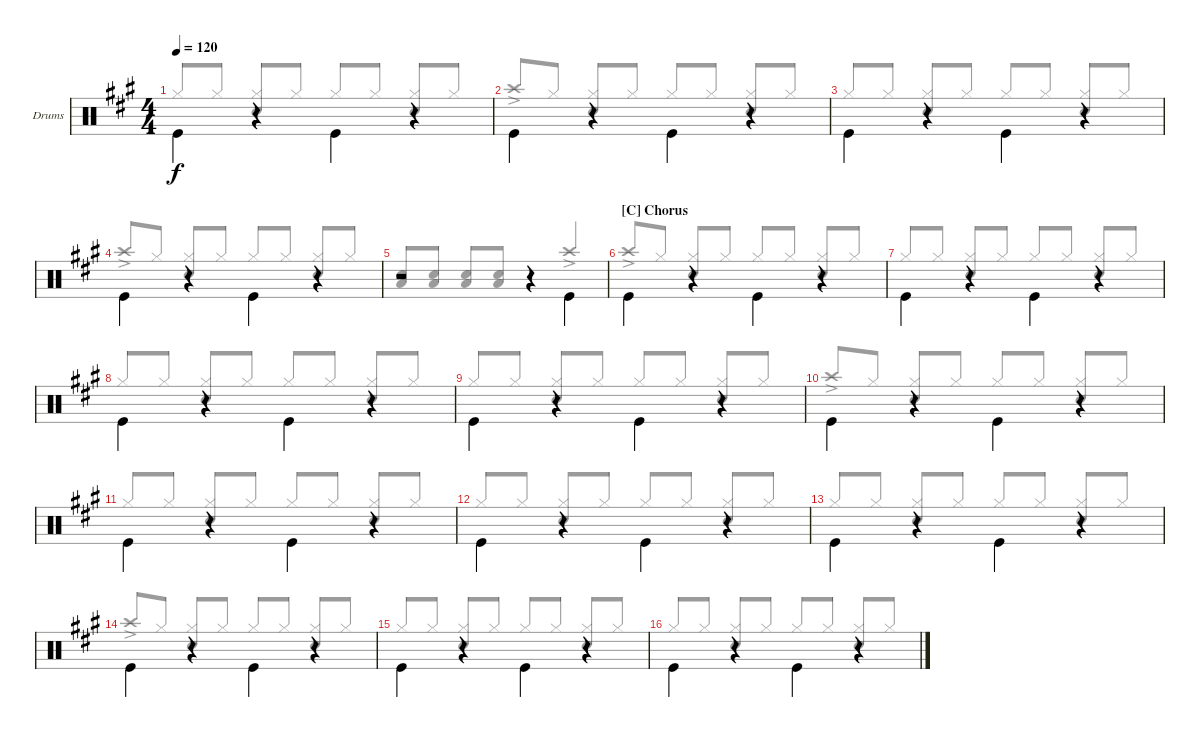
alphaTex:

\bracketExtendMode groupsimilarinstruments
\firstSystemTrackNameOrientation horizontal
\otherSystemsTrackNameOrientation horizontal
\track ("Drum" "Drums") {instrument percussion}
\staff {score}
\articulation defaults
\voice
\ts (4 4)
\tempo 120
\clef neutral
\scale
1.05801
\ks a "Kick (hit)".4{dy f beam invert}
r.4 "Kick (hit)".4{beam invert} r.4 |
\scale
0.941992 "Kick (hit)".4{beam invert} r.4 "Kick (hit)".4{beam invert} r.4 |
\scale
1.05801 "Kick (hit)".4{beam invert} r.4 "Kick (hit)".4{beam invert} r.4 |
\scale
0.941992 "Kick (hit)".4{beam invert} r.4 "Kick (hit)".4{beam invert} r.4 |
\scale
1.05801 r.2 r.4 "Kick (hit)".4{beam invert} |
\section ("C" "Chorus")
\scale
0.941992 "Kick (hit)".4{beam invert} r.4 "Kick (hit)".4{beam invert} r.4 |
\scale
1.05801 "Kick (hit)".4{beam invert} r.4 "Kick (hit)".4{beam invert} r.4 |
\scale
0.941992 "Kick (hit)".4{beam invert} r.4 "Kick (hit)".4{beam invert} r.4 |
\scale
1.05801 "Kick (hit)".4{beam invert} r.4 "Kick (hit)".4{beam invert} r.4 |
\scale
0.941992 "Kick (hit)".4{beam invert} r.4 "Kick (hit)".4{beam invert} r.4 |
\scale
1.05801 "Kick (hit)".4{beam invert} r.4 "Kick (hit)".4{beam invert} r.4 |
\scale
0.941992 "Kick (hit)".4{beam invert} r.4 "Kick (hit)".4{beam invert} r.4 |
\scale
1.05801 "Kick (hit)".4{beam invert} r.4 "Kick (hit)".4{beam invert} r.4 |
\scale
0.941992 "Kick (hit)".4{beam invert} r.4 "Kick (hit)".4{beam invert} r.4 |
\scale
1.05801 "Kick (hit)".4{beam invert} r.4 "Kick (hit)".4{beam invert} r.4 |
\scale
0.941992 "Kick (hit)".4{beam invert} r.4 "Kick (hit)".4{beam invert} r.4
\voice
\clef neutral
\ottava regular
\simile none
\scale
1.05801
\ks a "Hi-Hat (closed)".8{dy f beam invert} "Hi-Hat (closed)".8
("Hi-Hat (closed)" "Snare (hit) 2").8{beam invert} "Hi-Hat (closed)".8 "Hi-Hat (closed)".8{beam invert} "Hi-Hat (closed)".8 ("Hi-Hat (closed)" "Snare (hit) 2").8{beam invert} "Hi-Hat (closed)".8 |
\scale
0.941992 "Crash high (hit)"{ac}.8{beam invert} "Hi-Hat (closed)".8 ("Hi-Hat (closed)" "Snare (hit) 2").8{beam invert} "Hi-Hat (closed)".8 "Hi-Hat (closed)".8{beam invert} "Hi-Hat (closed)".8 ("Hi-Hat (closed)" "Snare (hit) 2").8{beam invert} "Hi-Hat (closed)".8 |
\scale
1.05801 "Hi-Hat (closed)".8{beam invert} "Hi-Hat (closed)".8 ("Hi-Hat (closed)" "Snare (hit) 2").8{beam invert} "Hi-Hat (closed)".8 "Hi-Hat (closed)".8{beam invert} "Hi-Hat (closed)".8 ("Hi-Hat (closed)" "Snare (hit) 2").8{beam invert} "Hi-Hat (closed)".8 |
\scale
0.941992 "Crash high (hit)"{ac}.8{beam invert} "Hi-Hat (closed)".8 ("Hi-Hat (closed)" "Snare (hit) 2").8{beam invert} "Hi-Hat (closed)".8 "Hi-Hat (closed)".8{beam invert} "Hi-Hat (closed)".8 ("Hi-Hat (closed)" "Snare (hit) 2").8{beam invert} "Hi-Hat (closed)".8 |
\scale
1.05801 ("Low Tom (hit)" "Snare (hit) 2").8{beam invert} ("Low Tom (hit)" "Snare (hit) 2").8 ("Low Tom (hit)" "Snare (hit) 2").8{beam invert} ("Low Tom (hit)" "Snare (hit) 2").8 r.4 "Crash high (hit)"{ac}.4{beam invert} |
\scale
0.941992 "Crash high (hit)"{ac}.8{beam invert} "Hi-Hat (closed)".8 ("Hi-Hat (closed)" "Snare (hit) 2").8{beam invert} "Hi-Hat (closed)".8 "Hi-Hat (closed)".8{beam invert} "Hi-Hat (closed)".8 ("Hi-Hat (closed)" "Snare (hit) 2").8{beam invert} "Hi-Hat (closed)".8 |
\scale
1.05801 "Hi-Hat (closed)".8{beam invert} "Hi-Hat (closed)".8 ("Hi-Hat (closed)" "Snare (hit) 2").8{beam invert} "Hi-Hat (closed)".8 "Hi-Hat (closed)".8{beam invert} "Hi-Hat (closed)".8 ("Hi-Hat (closed)" "Snare (hit) 2").8{beam invert} "Hi-Hat (closed)".8 |
\scale
0.941992 "Hi-Hat (closed)".8{beam invert} "Hi-Hat (closed)".8 ("Hi-Hat (closed)" "Snare (hit) 2").8{beam invert} "Hi-Hat (closed)".8 "Hi-Hat (closed)".8{beam invert} "Hi-Hat (closed)".8 ("Hi-Hat (closed)" "Snare (hit) 2").8{beam invert} "Hi-Hat (closed)".8 |
\scale
1.05801 "Hi-Hat (closed)".8{beam invert} "Hi-Hat (closed)".8 ("Hi-Hat (closed)" "Snare (hit) 2").8{beam invert} "Hi-Hat (closed)".8 "Hi-Hat (closed)".8{beam invert} "Hi-Hat (closed)".8 ("Hi-Hat (closed)" "Snare (hit) 2").8{beam invert} "Hi-Hat (closed)".8 |
\scale
0.941992 "Crash high (hit)"{ac}.8{beam invert} "Hi-Hat (closed)".8 ("Hi-Hat (closed)" "Snare (hit) 2").8{beam invert} "Hi-Hat (closed)".8 "Hi-Hat (closed)".8{beam invert} "Hi-Hat (closed)".8 ("Hi-Hat (closed)" "Snare (hit) 2").8{beam invert} "Hi-Hat (closed)".8 |
\scale
1.05801 "Hi-Hat (closed)".8{beam invert} "Hi-Hat (closed)".8 ("Hi-Hat (closed)" "Snare (hit) 2").8{beam invert} "Hi-Hat (closed)".8 "Hi-Hat (closed)".8{beam invert} "Hi-Hat (closed)".8 ("Hi-Hat (closed)" "Snare (hit) 2").8{beam invert} "Hi-Hat (closed)".8 |
\scale
0.941992 "Hi-Hat (closed)".8{beam invert} "Hi-Hat (closed)".8 ("Hi-Hat (closed)" "Snare (hit) 2").8{beam invert} "Hi-Hat (closed)".8 "Hi-Hat (closed)".8{beam invert} "Hi-Hat (closed)".8 ("Hi-Hat (closed)" "Snare (hit) 2").8{beam invert} "Hi-Hat (closed)".8 |
\scale
1.05801 "Hi-Hat (closed)".8{beam invert} "Hi-Hat (closed)".8 ("Hi-Hat (closed)" "Snare (hit) 2").8{beam invert} "Hi-Hat (closed)".8 "Hi-Hat (closed)".8{beam invert} "Hi-Hat (closed)".8 ("Hi-Hat (closed)" "Snare (hit) 2").8{beam invert} "Hi-Hat (closed)".8 |
\scale
0.941992 "Crash high (hit)"{ac}.8{beam invert} "Hi-Hat (closed)".8 ("Hi-Hat (closed)" "Snare (hit) 2").8{beam invert} "Hi-Hat (closed)".8 "Hi-Hat (closed)".8{beam invert} "Hi-Hat (closed)".8 ("Hi-Hat (closed)" "Snare (hit) 2").8{beam invert} "Hi-Hat (closed)".8 |
\scale
1.05801 "Hi-Hat (closed)".8{beam invert} "Hi-Hat (closed)".8 ("Hi-Hat (closed)" "Snare (hit) 2").8{beam invert} "Hi-Hat (closed)".8 "Hi-Hat (closed)".8{beam invert} "Hi-Hat (closed)".8 ("Hi-Hat (closed)" "Snare (hit) 2").8{beam invert} "Hi-Hat (closed)".8 |
\scale
0.941992 "Hi-Hat (closed)".8{beam invert} "Hi-Hat (closed)".8 ("Hi-Hat (closed)" "Snare (hit) 2").8{beam invert} "Hi-Hat (closed)".8 "Hi-Hat (closed)".8{beam invert} "Hi-Hat (closed)".8 ("Hi-Hat (closed)" "Snare (hit) 2").8{beam invert} "Hi-Hat (closed)".8
